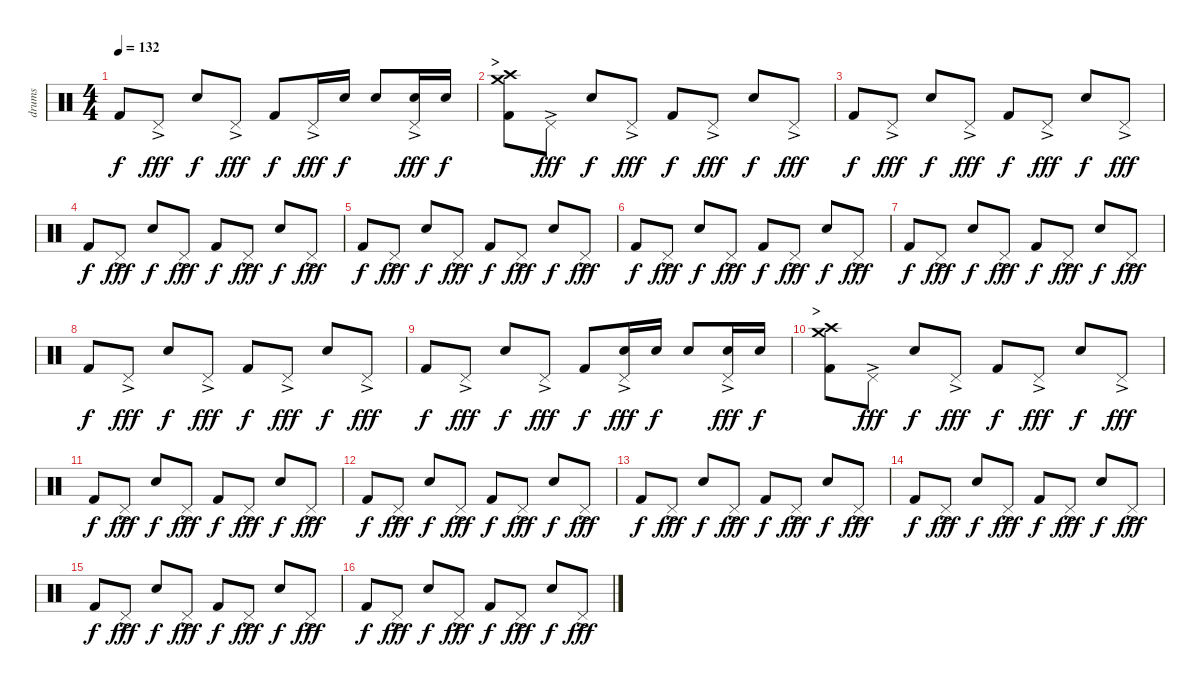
\track ("drums" "drums") {instrument percussion}
\staff {score}
\articulation defaults
\ts (4 4)
\tempo 132
\clef neutral
\ks c "Kick (hit) 2".8{dy f} "Pedal Hi-Hat (hit)"{ac}.8{dy fff} "Snare (hit) 2".8{dy f} "Pedal Hi-Hat (hit)"{ac}.8{dy fff} "Kick (hit) 2".8{dy f} "Pedal Hi-Hat (hit)"{ac}.16{dy fff} "Snare (hit) 2".16{dy f} "Snare (hit) 2".8
("Pedal Hi-Hat (hit)"{ac} "Snare (hit) 2").16{dy fff} "Snare (hit) 2".16{dy f} |
\section ("" ">")
("Kick (hit) 2" "Crash medium (hit)" "Crash high (hit)").8 "Pedal Hi-Hat (hit)"{ac}.8{dy fff} "Snare (hit) 2".8{dy f} "Pedal Hi-Hat (hit)"{ac}.8{dy fff} "Kick (hit) 2".8{dy f} "Pedal Hi-Hat (hit)"{ac}.8{dy fff} "Snare (hit) 2".8{dy f} "Pedal Hi-Hat (hit)"{ac}.8{dy fff} |
"Kick (hit) 2".8{dy f} "Pedal Hi-Hat (hit)"{ac}.8{dy fff} "Snare (hit) 2".8{dy f} "Pedal Hi-Hat (hit)"{ac}.8{dy fff} "Kick (hit) 2".8{dy f} "Pedal Hi-Hat (hit)"{ac}.8{dy fff} "Snare (hit) 2".8{dy f} "Pedal Hi-Hat (hit)"{ac}.8{dy fff} |
"Kick (hit) 2".8{dy f} "Pedal Hi-Hat (hit)"{ac}.8{dy fff} "Snare (hit) 2".8{dy f} "Pedal Hi-Hat (hit)"{ac}.8{dy fff} "Kick (hit) 2".8{dy f} "Pedal Hi-Hat (hit)"{ac}.8{dy fff} "Snare (hit) 2".8{dy f} "Pedal Hi-Hat (hit)"{ac}.8{dy fff} |
"Kick (hit) 2".8{dy f} "Pedal Hi-Hat (hit)"{ac}.8{dy fff} "Snare (hit) 2".8{dy f} "Pedal Hi-Hat (hit)"{ac}.8{dy fff} "Kick (hit) 2".8{dy f} "Pedal Hi-Hat (hit)"{ac}.8{dy fff} "Snare (hit) 2".8{dy f} "Pedal Hi-Hat (hit)"{ac}.8{dy fff} |
"Kick (hit) 2".8{dy f} "Pedal Hi-Hat (hit)"{ac}.8{dy fff} "Snare (hit) 2".8{dy f} "Pedal Hi-Hat (hit)"{ac}.8{dy fff} "Kick (hit) 2".8{dy f} "Pedal Hi-Hat (hit)"{ac}.8{dy fff} "Snare (hit) 2".8{dy f} "Pedal Hi-Hat (hit)"{ac}.8{dy fff} |
"Kick (hit) 2".8{dy f} "Pedal Hi-Hat (hit)"{ac}.8{dy fff} "Snare (hit) 2".8{dy f} "Pedal Hi-Hat (hit)"{ac}.8{dy fff} "Kick (hit) 2".8{dy f} "Pedal Hi-Hat (hit)"{ac}.8{dy fff} "Snare (hit) 2".8{dy f} "Pedal Hi-Hat (hit)"{ac}.8{dy fff} |
"Kick (hit) 2".8{dy f} "Pedal Hi-Hat (hit)"{ac}.8{dy fff} "Snare (hit) 2".8{dy f} "Pedal Hi-Hat (hit)"{ac}.8{dy fff} "Kick (hit) 2".8{dy f} "Pedal Hi-Hat (hit)"{ac}.8{dy fff} "Snare (hit) 2".8{dy f} "Pedal Hi-Hat (hit)"{ac}.8{dy fff} |
"Kick (hit) 2".8{dy f} "Pedal Hi-Hat (hit)"{ac}.8{dy fff} "Snare (hit) 2".8{dy f} "Pedal Hi-Hat (hit)"{ac}.8{dy fff} "Kick (hit) 2".8{dy f} ("Pedal Hi-Hat (hit)"{ac} "Snare (hit) 2").16{dy fff} "Snare (hit) 2".16{dy f} "Snare (hit) 2".8 ("Pedal Hi-Hat (hit)"{ac} "Snare (hit) 2").16{dy fff} "Snare (hit) 2".16{dy f} |
\section ("" ">")
("Crash medium (hit)" "Kick (hit) 2" "Crash high (hit)").8 "Pedal Hi-Hat (hit)"{ac}.8{dy fff} "Snare (hit) 2".8{dy f} "Pedal Hi-Hat (hit)"{ac}.8{dy fff} "Kick (hit) 2".8{dy f} "Pedal Hi-Hat (hit)"{ac}.8{dy fff} "Snare (hit) 2".8{dy f} "Pedal Hi-Hat (hit)"{ac}.8{dy fff} |
"Kick (hit) 2".8{dy f} "Pedal Hi-Hat (hit)"{ac}.8{dy fff} "Snare (hit) 2".8{dy f} "Pedal Hi-Hat (hit)"{ac}.8{dy fff} "Kick (hit) 2".8{dy f} "Pedal Hi-Hat (hit)"{ac}.8{dy fff} "Snare (hit) 2".8{dy f} "Pedal Hi-Hat (hit)"{ac}.8{dy fff} |
"Kick (hit) 2".8{dy f} "Pedal Hi-Hat (hit)"{ac}.8{dy fff} "Snare (hit) 2".8{dy f} "Pedal Hi-Hat (hit)"{ac}.8{dy fff} "Kick (hit) 2".8{dy f} "Pedal Hi-Hat (hit)"{ac}.8{dy fff} "Snare (hit) 2".8{dy f} "Pedal Hi-Hat (hit)"{ac}.8{dy fff} |
"Kick (hit) 2".8{dy f} "Pedal Hi-Hat (hit)"{ac}.8{dy fff} "Snare (hit) 2".8{dy f} "Pedal Hi-Hat (hit)"{ac}.8{dy fff} "Kick (hit) 2".8{dy f} "Pedal Hi-Hat (hit)"{ac}.8{dy fff} "Snare (hit) 2".8{dy f} "Pedal Hi-Hat (hit)"{ac}.8{dy fff} |
"Kick (hit) 2".8{dy f} "Pedal Hi-Hat (hit)"{ac}.8{dy fff} "Snare (hit) 2".8{dy f} "Pedal Hi-Hat (hit)"{ac}.8{dy fff} "Kick (hit) 2".8{dy f} "Pedal Hi-Hat (hit)"{ac}.8{dy fff} "Snare (hit) 2".8{dy f} "Pedal Hi-Hat (hit)"{ac}.8{dy fff} |
"Kick (hit) 2".8{dy f} "Pedal Hi-Hat (hit)"{ac}.8{dy fff} "Snare (hit) 2".8{dy f} "Pedal Hi-Hat (hit)"{ac}.8{dy fff} "Kick (hit) 2".8{dy f} "Pedal Hi-Hat (hit)"{ac}.8{dy fff} "Snare (hit) 2".8{dy f} "Pedal Hi-Hat (hit)"{ac}.8{dy fff} |
"Kick (hit) 2".8{dy f} "Pedal Hi-Hat (hit)"{ac}.8{dy fff} "Snare (hit) 2".8{dy f} "Pedal Hi-Hat (hit)"{ac}.8{dy fff} "Kick (hit) 2".8{dy f} "Pedal Hi-Hat (hit)"{ac}.8{dy fff} "Snare (hit) 2".8{dy f} "Pedal Hi-Hat (hit)"{ac}.8{dy fff}
